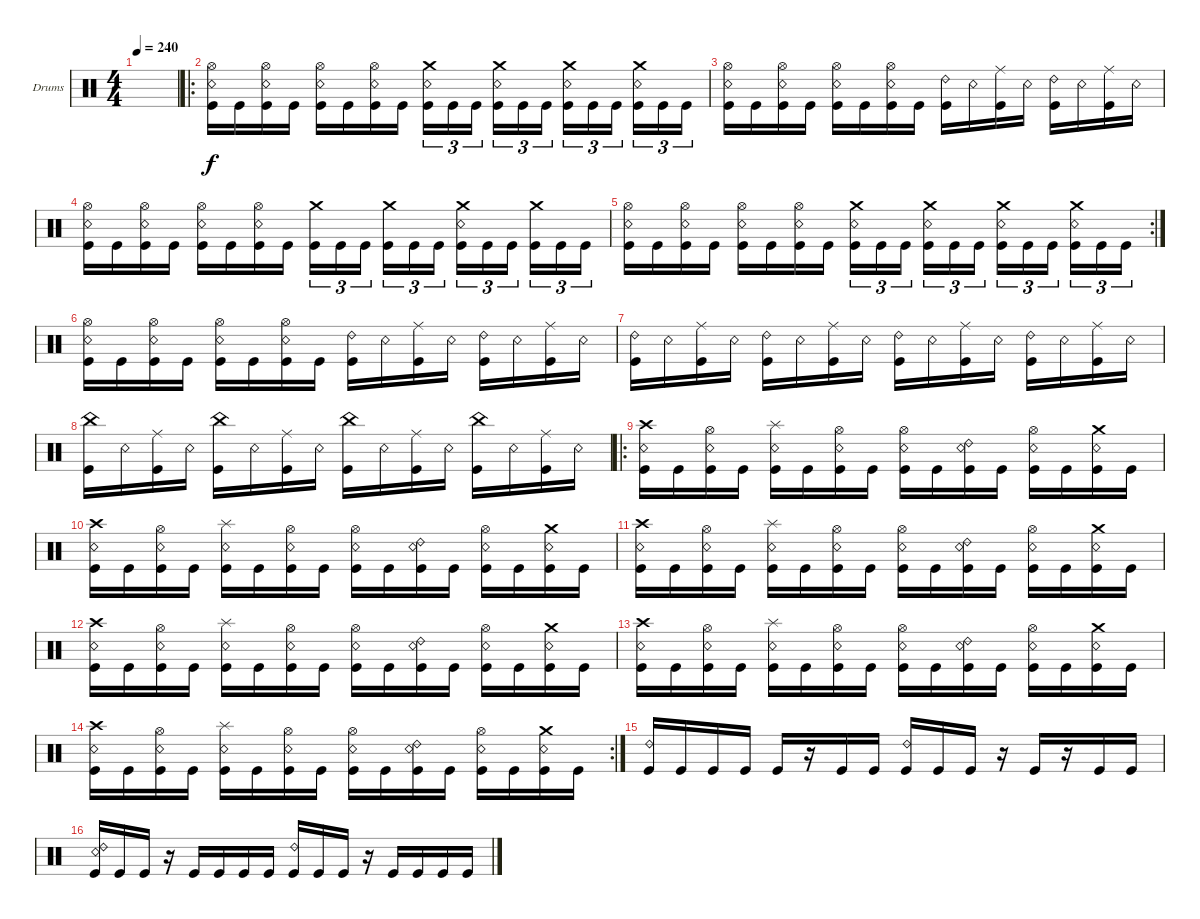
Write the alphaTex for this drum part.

\bracketExtendMode groupsimilarinstruments
\firstSystemTrackNameOrientation horizontal
\otherSystemsTrackNameOrientation horizontal
\track ("Drumkit" "Drums") {instrument percussion}
\staff {score}
\articulation defaults
\ts (4 4)
\tempo 240
\clef neutral
\ks c
|
\ro
("Snare (rim shot)" "Kick (hit)" "Hi-Hat (open)").16 "Kick (hit)".16 ("Snare (rim shot)" "Kick (hit)" "Hi-Hat (open)").16 "Kick (hit)".16 ("Snare (rim shot)" "Kick (hit)" "Hi-Hat (open)").16 "Kick (hit)".16 ("Snare (rim shot)" "Kick (hit)" "Hi-Hat (open)").16 "Kick (hit)".16 ("Snare (rim shot)" "Kick (hit)" "Crash medium (hit)").16{tu (3 2)} "Kick (hit)".16{tu (3 2)} "Kick (hit)".16{tu (3 2)} ("Snare (rim shot)" "Kick (hit)" "Crash medium (hit)").16{tu (3 2)} "Kick (hit)".16{tu (3 2)} "Kick (hit)".16{tu (3 2)} ("Snare (rim shot)" "Kick (hit)" "Crash medium (hit)").16{tu (3 2)} "Kick (hit)".16{tu (3 2)} "Kick (hit)".16{tu (3 2)} ("Snare (rim shot)" "Kick (hit)" "Crash medium (hit)").16{tu (3 2)} "Kick (hit)".16{tu (3 2)} "Kick (hit)".16{tu (3 2)} |
("Snare (rim shot)" "Kick (hit)" "Hi-Hat (open)").16 "Kick (hit)".16 ("Snare (rim shot)" "Kick (hit)" "Hi-Hat (open)").16 "Kick (hit)".16 ("Snare (rim shot)" "Kick (hit)" "Hi-Hat (open)").16 "Kick (hit)".16 ("Snare (rim shot)" "Kick (hit)" "Hi-Hat (open)").16 "Kick (hit)".16 ("Ride (bell) 2" "Kick (hit)").16 "Snare (rim shot)".16 ("Ride (middle)" "Kick (hit)").16 "Snare (rim shot)".16 ("Ride (bell) 2" "Kick (hit)").16 "Snare (rim shot)".16 ("Ride (middle)" "Kick (hit)").16 "Snare (rim shot)".16 |
("Snare (rim shot)" "Kick (hit)" "Hi-Hat (open)").16 "Kick (hit)".16 ("Snare (rim shot)" "Kick (hit)" "Hi-Hat (open)").16 "Kick (hit)".16 ("Snare (rim shot)" "Kick (hit)" "Hi-Hat (open)").16 "Kick (hit)".16 ("Snare (rim shot)" "Kick (hit)" "Hi-Hat (open)").16 "Kick (hit)".16 ("Kick (hit)" "Crash medium (hit)").16{tu (3 2)} "Kick (hit)".16{tu (3 2)} "Kick (hit)".16{tu (3 2)} ("Kick (hit)" "Crash medium (hit)").16{tu (3 2)} "Kick (hit)".16{tu (3 2)} "Kick (hit)".16{tu (3 2)} ("Kick (hit)" "Crash medium (hit)" "Snare (rim shot)").16{tu (3 2)} "Kick (hit)".16{tu (3 2)} "Kick (hit)".16{tu (3 2)} ("Kick (hit)" "Crash medium (hit)").16{tu (3 2)} "Kick (hit)".16{tu (3 2)} "Kick (hit)".16{tu (3 2)} |
\rc 2
("Snare (rim shot)" "Kick (hit)" "Hi-Hat (open)").16 "Kick (hit)".16 ("Snare (rim shot)" "Kick (hit)" "Hi-Hat (open)").16 "Kick (hit)".16 ("Snare (rim shot)" "Kick (hit)" "Hi-Hat (open)").16 "Kick (hit)".16 ("Snare (rim shot)" "Kick (hit)" "Hi-Hat (open)").16 "Kick (hit)".16 ("Snare (rim shot)" "Kick (hit)" "Crash medium (hit)").16{tu (3 2)} "Kick (hit)".16{tu (3 2)} "Kick (hit)".16{tu (3 2)} ("Snare (rim shot)" "Kick (hit)" "Crash medium (hit)").16{tu (3 2)} "Kick (hit)".16{tu (3 2)} "Kick (hit)".16{tu (3 2)} ("Snare (rim shot)" "Kick (hit)" "Crash medium (hit)").16{tu (3 2)} "Kick (hit)".16{tu (3 2)} "Kick (hit)".16{tu (3 2)} ("Snare (rim shot)" "Kick (hit)" "Crash medium (hit)").16{tu (3 2)} "Kick (hit)".16{tu (3 2)} "Kick (hit)".16{tu (3 2)} |
("Snare (rim shot)" "Kick (hit)" "Hi-Hat (open)").16 "Kick (hit)".16 ("Snare (rim shot)" "Kick (hit)" "Hi-Hat (open)").16 "Kick (hit)".16 ("Snare (rim shot)" "Kick (hit)" "Hi-Hat (open)").16 "Kick (hit)".16 ("Snare (rim shot)" "Kick (hit)" "Hi-Hat (open)").16 "Kick (hit)".16 ("Ride (bell) 2" "Kick (hit)").16 "Snare (rim shot)".16 ("Ride (middle)" "Kick (hit)").16 "Snare (rim shot)".16 ("Ride (bell) 2" "Kick (hit)").16 "Snare (rim shot)".16 ("Ride (middle)" "Kick (hit)").16 "Snare (rim shot)".16 |
("Ride (bell) 2" "Kick (hit)").16 "Snare (rim shot)".16 ("Ride (middle)" "Kick (hit)").16 "Snare (rim shot)".16 ("Ride (bell) 2" "Kick (hit)").16 "Snare (rim shot)".16 ("Ride (middle)" "Kick (hit)").16 "Snare (rim shot)".16 ("Ride (bell) 2" "Kick (hit)").16 "Snare (rim shot)".16 ("Ride (middle)" "Kick (hit)").16 "Snare (rim shot)".16 ("Ride (bell) 2" "Kick (hit)").16 "Snare (rim shot)".16 ("Ride (middle)" "Kick (hit)").16 "Snare (rim shot)".16 |
("Kick (hit)" "China (hit)").16 "Snare (rim shot)".16 ("Ride (middle)" "Kick (hit)").16 "Snare (rim shot)".16 ("Kick (hit)" "China (hit)").16 "Snare (rim shot)".16 ("Ride (middle)" "Kick (hit)").16 "Snare (rim shot)".16 ("Kick (hit)" "China (hit)").16 "Snare (rim shot)".16 ("Ride (middle)" "Kick (hit)").16 "Snare (rim shot)".16 ("Kick (hit)" "China (hit)").16 "Snare (rim shot)".16 ("Ride (middle)" "Kick (hit)").16 "Snare (rim shot)".16 |
\ro
("Snare (rim shot)" "Kick (hit)" "Crash high (hit)").16 "Kick (hit)".16 ("Snare (rim shot)" "Kick (hit)" "Hi-Hat (open)").16 "Kick (hit)".16 ("Snare (rim shot)" "Kick (hit)" "Splash (hit)").16 "Kick (hit)".16 ("Snare (rim shot)" "Kick (hit)" "Hi-Hat (open)").16 "Kick (hit)".16 ("Snare (rim shot)" "Kick (hit)" "Hi-Hat (open)").16 "Kick (hit)".16 ("Snare (rim shot)" "Kick (hit)" "Ride (bell) 2").16 "Kick (hit)".16 ("Snare (rim shot)" "Kick (hit)" "Hi-Hat (open)").16 "Kick (hit)".16 ("Snare (rim shot)" "Kick (hit)" "Crash medium (hit)").16 "Kick (hit)".16 |
("Snare (rim shot)" "Kick (hit)" "Crash high (hit)").16 "Kick (hit)".16 ("Snare (rim shot)" "Kick (hit)" "Hi-Hat (open)").16 "Kick (hit)".16 ("Snare (rim shot)" "Kick (hit)" "Splash (hit)").16 "Kick (hit)".16 ("Snare (rim shot)" "Kick (hit)" "Hi-Hat (open)").16 "Kick (hit)".16 ("Snare (rim shot)" "Kick (hit)" "Hi-Hat (open)").16 "Kick (hit)".16 ("Snare (rim shot)" "Kick (hit)" "Ride (bell) 2").16 "Kick (hit)".16 ("Snare (rim shot)" "Kick (hit)" "Hi-Hat (open)").16 "Kick (hit)".16 ("Snare (rim shot)" "Kick (hit)" "Crash medium (hit)").16 "Kick (hit)".16 |
("Snare (rim shot)" "Kick (hit)" "Crash high (hit)").16 "Kick (hit)".16 ("Snare (rim shot)" "Kick (hit)" "Hi-Hat (open)").16 "Kick (hit)".16 ("Snare (rim shot)" "Kick (hit)" "Splash (hit)").16 "Kick (hit)".16 ("Snare (rim shot)" "Kick (hit)" "Hi-Hat (open)").16 "Kick (hit)".16 ("Snare (rim shot)" "Kick (hit)" "Hi-Hat (open)").16 "Kick (hit)".16 ("Snare (rim shot)" "Kick (hit)" "Ride (bell) 2").16 "Kick (hit)".16 ("Snare (rim shot)" "Kick (hit)" "Hi-Hat (open)").16 "Kick (hit)".16 ("Snare (rim shot)" "Kick (hit)" "Crash medium (hit)").16 "Kick (hit)".16 |
("Snare (rim shot)" "Kick (hit)" "Crash high (hit)").16 "Kick (hit)".16 ("Snare (rim shot)" "Kick (hit)" "Hi-Hat (open)").16 "Kick (hit)".16 ("Snare (rim shot)" "Kick (hit)" "Splash (hit)").16 "Kick (hit)".16 ("Snare (rim shot)" "Kick (hit)" "Hi-Hat (open)").16 "Kick (hit)".16 ("Snare (rim shot)" "Kick (hit)" "Hi-Hat (open)").16 "Kick (hit)".16 ("Snare (rim shot)" "Kick (hit)" "Ride (bell) 2").16 "Kick (hit)".16 ("Snare (rim shot)" "Kick (hit)" "Hi-Hat (open)").16 "Kick (hit)".16 ("Snare (rim shot)" "Kick (hit)" "Crash medium (hit)").16 "Kick (hit)".16 |
("Snare (rim shot)" "Kick (hit)" "Crash high (hit)").16 "Kick (hit)".16 ("Snare (rim shot)" "Kick (hit)" "Hi-Hat (open)").16 "Kick (hit)".16 ("Snare (rim shot)" "Kick (hit)" "Splash (hit)").16 "Kick (hit)".16 ("Snare (rim shot)" "Kick (hit)" "Hi-Hat (open)").16 "Kick (hit)".16 ("Snare (rim shot)" "Kick (hit)" "Hi-Hat (open)").16 "Kick (hit)".16 ("Snare (rim shot)" "Kick (hit)" "Ride (bell) 2").16 "Kick (hit)".16 ("Snare (rim shot)" "Kick (hit)" "Hi-Hat (open)").16 "Kick (hit)".16 ("Snare (rim shot)" "Kick (hit)" "Crash medium (hit)").16 "Kick (hit)".16 |
\rc 2
("Snare (rim shot)" "Kick (hit)" "Crash high (hit)").16 "Kick (hit)".16 ("Snare (rim shot)" "Kick (hit)" "Hi-Hat (open)").16 "Kick (hit)".16 ("Snare (rim shot)" "Kick (hit)" "Splash (hit)").16 "Kick (hit)".16 ("Snare (rim shot)" "Kick (hit)" "Hi-Hat (open)").16 "Kick (hit)".16 ("Snare (rim shot)" "Kick (hit)" "Hi-Hat (open)").16 "Kick (hit)".16 ("Snare (rim shot)" "Kick (hit)" "Ride (bell) 2").16 "Kick (hit)".16 ("Snare (rim shot)" "Kick (hit)" "Hi-Hat (open)").16 "Kick (hit)".16 ("Snare (rim shot)" "Kick (hit)" "Crash medium (hit)").16 "Kick (hit)".16 |
("Kick (hit)" "Ride (bell) 2").16 "Kick (hit)".16 "Kick (hit)".16 "Kick (hit)".16 "Kick (hit)".16 r.16 "Kick (hit)".16 "Kick (hit)".16 ("Kick (hit)" "Ride (bell) 2").16 "Kick (hit)".16 "Kick (hit)".16 r.16 "Kick (hit)".16 r.16 "Kick (hit)".16 "Kick (hit)".16 |
("Kick (hit)" "Ride (bell) 2" "Snare (rim shot)").16 "Kick (hit)".16 "Kick (hit)".16 r.16 "Kick (hit)".16 "Kick (hit)".16 "Kick (hit)".16 "Kick (hit)".16 ("Kick (hit)" "Ride (bell) 2").16 "Kick (hit)".16 "Kick (hit)".16 r.16 "Kick (hit)".16 "Kick (hit)".16 "Kick (hit)".16 "Kick (hit)".16
